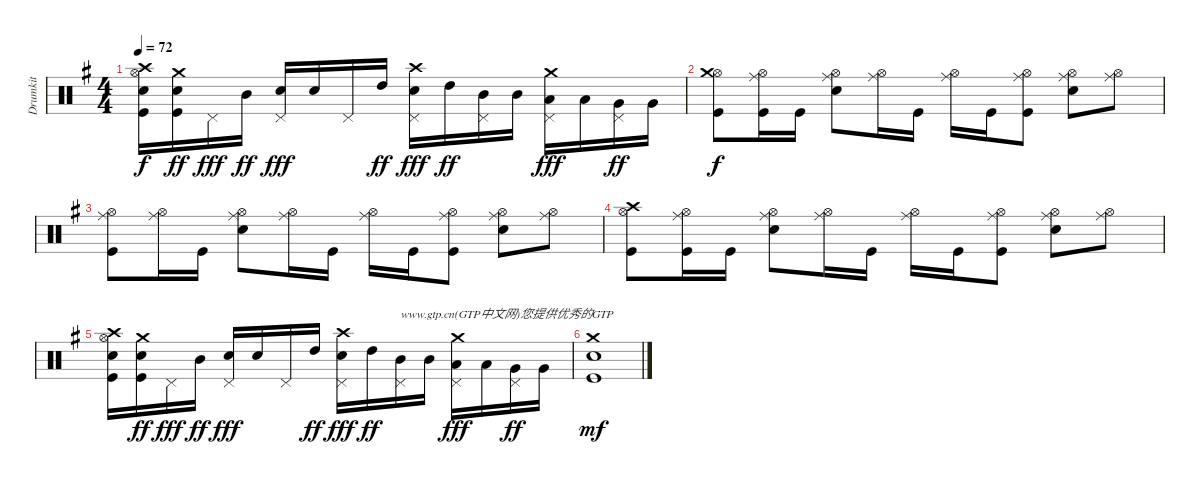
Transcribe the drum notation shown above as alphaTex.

\track ("Drumkit" "Drumkit") {instrument percussion}
\staff {score}
\articulation defaults
\ts (4 4)
\tempo 72
\clef neutral
\ks g
("Hi-Hat (open)" "Crash high (hit)" "Snare (hit) 2" "Kick (hit)").16{dy f} ("Crash medium (hit)" "Snare (hit) 2" "Kick (hit)").16{dy ff} "Pedal Hi-Hat (hit)".16{dy fff} "Mid Tom (hit)".16{dy ff} ("Pedal Hi-Hat (hit)" "Snare (hit) 2").16{dy fff} "Snare (hit) 2".16 "Pedal Hi-Hat (hit)".16 "High Tom (hit)".16{dy ff} ("Pedal Hi-Hat (hit)" "Crash high (hit)" "Snare (hit) 2").16{dy fff} "High Tom (hit)".16{dy ff} ("Pedal Hi-Hat (hit)" "Mid Tom (hit)").16 "Mid Tom (hit)".16 ("Pedal Hi-Hat (hit)" "Crash medium (hit)" "Low Tom (hit)").16{dy fff} "Low Tom (hit)".16 ("Pedal Hi-Hat (hit)" "Very Low Tom (hit)").16{dy ff} "Very Low Tom (hit)".16 |
("Hi-Hat (open)" "Crash medium (hit)" "Kick (hit)").8{dy f} ("Hi-Hat (open)" "Ride (middle)" "Kick (hit)").16 "Kick (hit)".16 ("Hi-Hat (open)" "Ride (middle)" "Snare (hit) 2").8 ("Hi-Hat (open)" "Ride (middle)").16 "Kick (hit)".16 ("Hi-Hat (open)" "Ride (middle)").16 "Kick (hit)".16 ("Hi-Hat (open)" "Ride (middle)" "Kick (hit)").8 ("Hi-Hat (open)" "Ride (middle)" "Snare (hit) 2").8 ("Hi-Hat (open)" "Ride (middle)").8 |
("Hi-Hat (open)" "Ride (middle)" "Kick (hit)").8 ("Hi-Hat (open)" "Ride (middle)").16 "Kick (hit)".16 ("Hi-Hat (open)" "Ride (middle)" "Snare (hit) 2").8 ("Hi-Hat (open)" "Ride (middle)").16 "Kick (hit)".16 ("Hi-Hat (open)" "Ride (middle)").16 "Kick (hit)".16 ("Hi-Hat (open)" "Ride (middle)" "Kick (hit)").8 ("Hi-Hat (open)" "Ride (middle)" "Snare (hit) 2").8 ("Hi-Hat (open)" "Ride (middle)").8 |
("Hi-Hat (open)" "Crash high (hit)" "Kick (hit)").8 ("Hi-Hat (open)" "Ride (middle)" "Kick (hit)").16 "Kick (hit)".16 ("Hi-Hat (open)" "Ride (middle)" "Snare (hit) 2").8 ("Hi-Hat (open)" "Ride (middle)").16 "Kick (hit)".16 ("Hi-Hat (open)" "Ride (middle)").16 "Kick (hit)".16 ("Hi-Hat (open)" "Ride (middle)" "Kick (hit)").8 ("Hi-Hat (open)" "Ride (middle)" "Snare (hit) 2").8 ("Hi-Hat (open)" "Ride (middle)").8 |
("Hi-Hat (open)" "Crash high (hit)" "Snare (hit) 2" "Kick (hit)").16 ("Crash medium (hit)" "Snare (hit) 2" "Kick (hit)").16{dy ff} "Pedal Hi-Hat (hit)".16{dy fff} "Mid Tom (hit)".16{dy ff} ("Pedal Hi-Hat (hit)" "Snare (hit) 2").16{dy fff} "Snare (hit) 2".16 "Pedal Hi-Hat (hit)".16 "High Tom (hit)".16{dy ff} ("Pedal Hi-Hat (hit)" "Crash high (hit)" "Snare (hit) 2").16{dy fff} "High Tom (hit)".16{dy ff} ("Pedal Hi-Hat (hit)" "Mid Tom (hit)").16{txt "www.gtp.cn(GTP中文网)您提供优秀的GTP"} "Mid Tom (hit)".16 ("Pedal Hi-Hat (hit)" "Crash medium (hit)" "Low Tom (hit)").16{dy fff} "Low Tom (hit)".16 ("Pedal Hi-Hat (hit)" "Very Low Tom (hit)").16{dy ff} "Very Low Tom (hit)".16 |
("Crash medium (hit)" "Snare (hit) 2" "Kick (hit)").1{dy mf}
